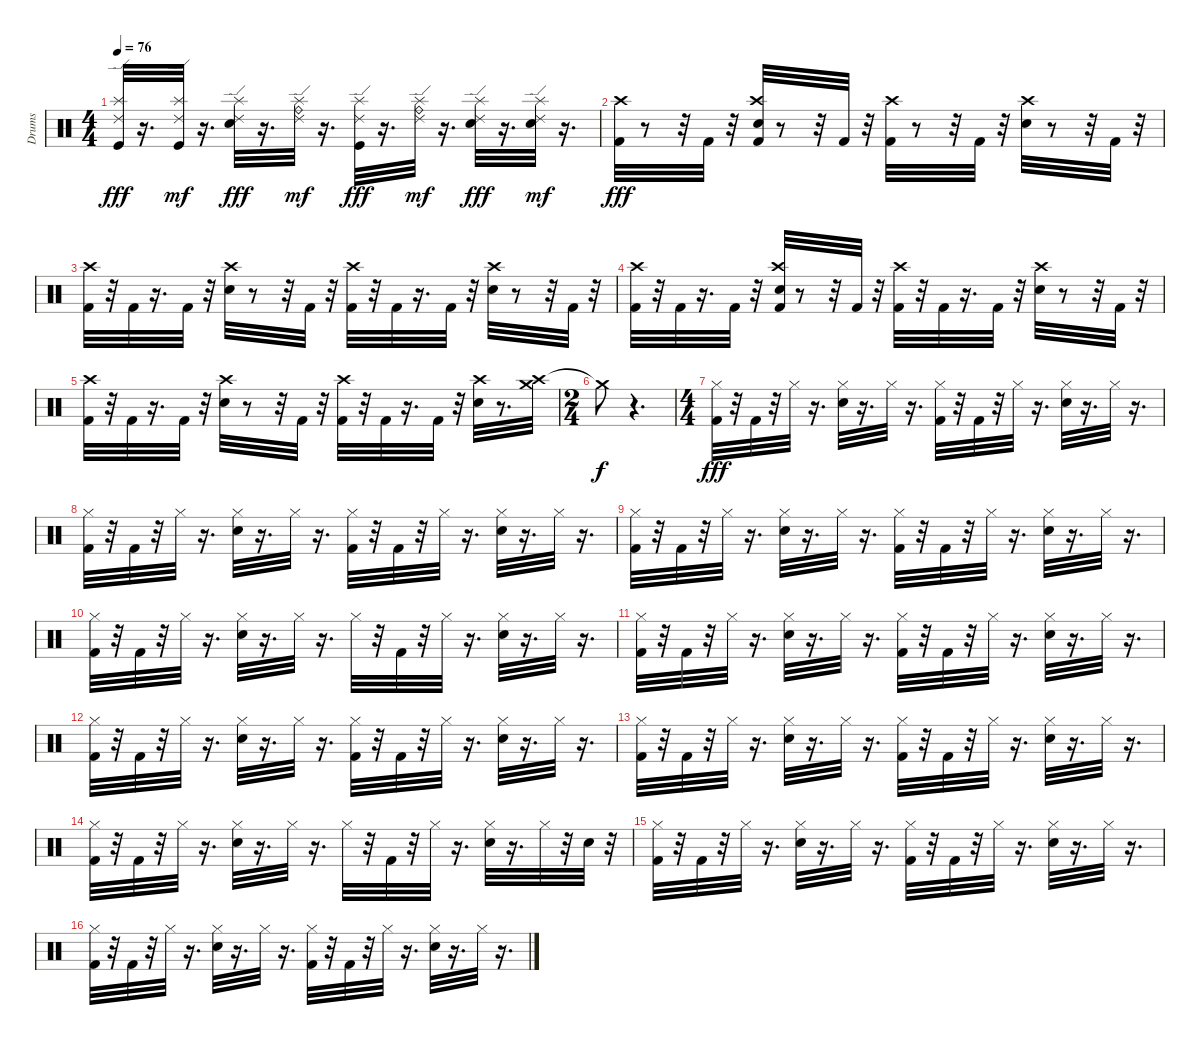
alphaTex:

\track ("Drums" "Drums") {instrument percussion}
\staff {score}
\articulation defaults
\ts (4 4)
\tempo 76
\clef neutral
\ks c
("Ride (edge) 2" "Splash (hit)" "Kick (hit)").32{dy fff} r.16{d} ("Kick (hit)" "Ride (edge) 2" "Splash (hit)").32{dy mf} r.16{d} ("Ride (edge) 2" "Splash (hit)" "Electric Snare (hit)").32{dy fff} r.16{d} ("Ride (bell)" "Ride (edge) 2" "Splash (hit)").32{dy mf} r.16{d} ("Ride (edge) 2" "Splash (hit)" "Kick (hit)").32{dy fff} r.16{d} ("Ride (bell)" "Ride (edge) 2" "Splash (hit)").32{dy mf} r.16{d} ("Ride (edge) 2" "Splash (hit)" "Electric Snare (hit)").32{dy fff} r.16{d} ("Electric Snare (hit)" "Ride (edge) 2" "Splash (hit)").32{dy mf} r.16{d} |
("Crash high (hit)" "Kick (hit) 2").32{dy fff} r.8 r.32 "Kick (hit) 2".32 r.32 ("Crash high (hit)" "Kick (hit) 2" "Electric Snare (hit)").32 r.8 r.32 "Kick (hit) 2".32 r.32 ("Crash high (hit)" "Kick (hit) 2").32 r.8 r.32 "Kick (hit) 2".32 r.32 ("Crash high (hit)" "Electric Snare (hit)").32 r.8 r.32 "Kick (hit) 2".32 r.32 |
("Crash high (hit)" "Kick (hit) 2").32 r.32 "Kick (hit) 2".32 r.16{d} "Kick (hit) 2".32 r.32 ("Crash high (hit)" "Electric Snare (hit)").32 r.8 r.32 "Kick (hit) 2".32 r.32 ("Crash high (hit)" "Kick (hit) 2").32 r.32 "Kick (hit) 2".32 r.16{d} "Kick (hit) 2".32 r.32 ("Crash high (hit)" "Electric Snare (hit)").32 r.8 r.32 "Kick (hit) 2".32 r.32 |
("Crash high (hit)" "Kick (hit) 2").32 r.32 "Kick (hit) 2".32 r.16{d} "Kick (hit) 2".32 r.32 ("Crash high (hit)" "Kick (hit) 2" "Electric Snare (hit)").32 r.8 r.32 "Kick (hit) 2".32 r.32 ("Crash high (hit)" "Kick (hit) 2").32 r.32 "Kick (hit) 2".32 r.16{d} "Kick (hit) 2".32 r.32 ("Crash high (hit)" "Electric Snare (hit)").32 r.8 r.32 "Kick (hit) 2".32 r.32 |
("Crash high (hit)" "Kick (hit) 2").32 r.32 "Kick (hit) 2".32 r.16{d} "Kick (hit) 2".32 r.32 ("Crash high (hit)" "Electric Snare (hit)").32 r.8 r.32 "Kick (hit) 2".32 r.32 ("Crash high (hit)" "Kick (hit) 2").32 r.32 "Kick (hit) 2".32 r.16{d} "Kick (hit) 2".32 r.32 ("Crash high (hit)" "Electric Snare (hit)").32 r.8{d} ("Crash high (hit)" "Crash medium (hit)").32 |
\ts (2 4)
"Crash medium (hit)"{t}.8{dy f} r.4{d} |
\ts (4 4)
("Hi-Hat (closed)" "Kick (hit) 2").32{dy fff} r.32 "Kick (hit) 2".32 r.32 "Hi-Hat (closed)".32 r.16{d} ("Hi-Hat (closed)" "Electric Snare (hit)").32 r.16{d} "Hi-Hat (closed)".32 r.16{d} ("Hi-Hat (closed)" "Kick (hit) 2").32 r.32 "Kick (hit) 2".32 r.32 "Hi-Hat (closed)".32 r.16{d} ("Hi-Hat (closed)" "Electric Snare (hit)").32 r.16{d} "Hi-Hat (closed)".32 r.16{d} |
("Kick (hit) 2" "Hi-Hat (closed)").32 r.32 "Kick (hit) 2".32 r.32 "Hi-Hat (closed)".32 r.16{d} ("Electric Snare (hit)" "Hi-Hat (closed)").32 r.16{d} "Hi-Hat (closed)".32 r.16{d} ("Kick (hit) 2" "Hi-Hat (closed)").32 r.32 "Kick (hit) 2".32 r.32 "Hi-Hat (closed)".32 r.16{d} ("Electric Snare (hit)" "Hi-Hat (closed)").32 r.16{d} "Hi-Hat (closed)".32 r.16{d} |
("Hi-Hat (closed)" "Kick (hit) 2").32 r.32 "Kick (hit) 2".32 r.32 "Hi-Hat (closed)".32 r.16{d} ("Hi-Hat (closed)" "Electric Snare (hit)").32 r.16{d} "Hi-Hat (closed)".32 r.16{d} ("Hi-Hat (closed)" "Kick (hit) 2").32 r.32 "Kick (hit) 2".32 r.32 "Hi-Hat (closed)".32 r.16{d} ("Hi-Hat (closed)" "Electric Snare (hit)").32 r.16{d} "Hi-Hat (closed)".32 r.16{d} |
("Kick (hit) 2" "Hi-Hat (closed)").32 r.32 "Kick (hit) 2".32 r.32 "Hi-Hat (closed)".32 r.16{d} ("Electric Snare (hit)" "Hi-Hat (closed)").32 r.16{d} "Hi-Hat (closed)".32 r.16{d} "Hi-Hat (closed)".32 r.32 "Kick (hit) 2".32 r.32 "Hi-Hat (closed)".32 r.16{d} ("Electric Snare (hit)" "Hi-Hat (closed)").32 r.16{d} "Hi-Hat (closed)".32 r.16{d} |
("Hi-Hat (closed)" "Kick (hit) 2").32 r.32 "Kick (hit) 2".32 r.32 "Hi-Hat (closed)".32 r.16{d} ("Hi-Hat (closed)" "Electric Snare (hit)").32 r.16{d} "Hi-Hat (closed)".32 r.16{d} ("Hi-Hat (closed)" "Kick (hit) 2").32 r.32 "Kick (hit) 2".32 r.32 "Hi-Hat (closed)".32 r.16{d} ("Hi-Hat (closed)" "Electric Snare (hit)").32 r.16{d} "Hi-Hat (closed)".32 r.16{d} |
("Kick (hit) 2" "Hi-Hat (closed)").32 r.32 "Kick (hit) 2".32 r.32 "Hi-Hat (closed)".32 r.16{d} ("Electric Snare (hit)" "Hi-Hat (closed)").32 r.16{d} "Hi-Hat (closed)".32 r.16{d} ("Kick (hit) 2" "Hi-Hat (closed)").32 r.32 "Kick (hit) 2".32 r.32 "Hi-Hat (closed)".32 r.16{d} ("Electric Snare (hit)" "Hi-Hat (closed)").32 r.16{d} "Hi-Hat (closed)".32 r.16{d} |
("Hi-Hat (closed)" "Kick (hit) 2").32 r.32 "Kick (hit) 2".32 r.32 "Hi-Hat (closed)".32 r.16{d} ("Hi-Hat (closed)" "Electric Snare (hit)").32 r.16{d} "Hi-Hat (closed)".32 r.16{d} ("Hi-Hat (closed)" "Kick (hit) 2").32 r.32 "Kick (hit) 2".32 r.32 "Hi-Hat (closed)".32 r.16{d} ("Hi-Hat (closed)" "Electric Snare (hit)").32 r.16{d} "Hi-Hat (closed)".32 r.16{d} |
("Kick (hit) 2" "Hi-Hat (closed)").32 r.32 "Kick (hit) 2".32 r.32 "Hi-Hat (closed)".32 r.16{d} ("Electric Snare (hit)" "Hi-Hat (closed)").32 r.16{d} "Hi-Hat (closed)".32 r.16{d} "Hi-Hat (closed)".32 r.32 "Kick (hit) 2".32 r.32 "Hi-Hat (closed)".32 r.16{d} ("Electric Snare (hit)" "Hi-Hat (closed)").32 r.16{d} "Hi-Hat (closed)".32 r.32 "Electric Snare (hit)".32 r.32 |
("Hi-Hat (closed)" "Kick (hit) 2").32 r.32 "Kick (hit) 2".32 r.32 "Hi-Hat (closed)".32 r.16{d} ("Hi-Hat (closed)" "Electric Snare (hit)").32 r.16{d} "Hi-Hat (closed)".32 r.16{d} ("Hi-Hat (closed)" "Kick (hit) 2").32 r.32 "Kick (hit) 2".32 r.32 "Hi-Hat (closed)".32 r.16{d} ("Hi-Hat (closed)" "Electric Snare (hit)").32 r.16{d} "Hi-Hat (closed)".32 r.16{d} |
("Kick (hit) 2" "Hi-Hat (closed)").32 r.32 "Kick (hit) 2".32 r.32 "Hi-Hat (closed)".32 r.16{d} ("Electric Snare (hit)" "Hi-Hat (closed)").32 r.16{d} "Hi-Hat (closed)".32 r.16{d} ("Kick (hit) 2" "Hi-Hat (closed)").32 r.32 "Kick (hit) 2".32 r.32 "Hi-Hat (closed)".32 r.16{d txt ""} ("Electric Snare (hit)" "Hi-Hat (closed)").32 r.16{d} "Hi-Hat (closed)".32 r.16{d}
